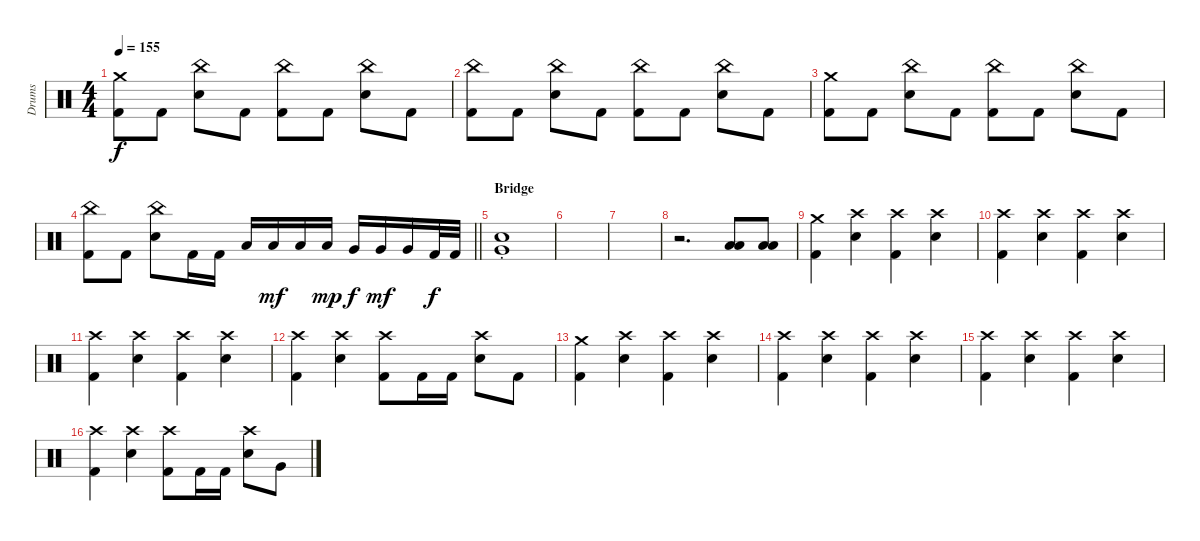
\track ("Drums" "Drums") {instrument percussion}
\staff {score}
\articulation defaults
\ts (4 4)
\tempo 155
\clef neutral
\ks c
("Kick (hit) 2" "Crash medium (hit)").8{dy f} "Kick (hit) 2".8 ("China (hit)" "Electric Snare (hit)").8 "Kick (hit) 2".8 ("Kick (hit) 2" "China (hit)").8 "Kick (hit) 2".8 ("China (hit)" "Electric Snare (hit)").8 "Kick (hit) 2".8 |
("Kick (hit) 2" "China (hit)").8 "Kick (hit) 2".8 ("China (hit)" "Electric Snare (hit)").8 "Kick (hit) 2".8 ("Kick (hit) 2" "China (hit)").8 "Kick (hit) 2".8 ("China (hit)" "Electric Snare (hit)").8 "Kick (hit) 2".8 |
("Kick (hit) 2" "Crash medium (hit)").8 "Kick (hit) 2".8 ("China (hit)" "Electric Snare (hit)").8 "Kick (hit) 2".8 ("Kick (hit) 2" "China (hit)").8 "Kick (hit) 2".8 ("China (hit)" "Electric Snare (hit)").8 "Kick (hit) 2".8 |
\barLineRight lightlight
("Kick (hit) 2" "China (hit)").8 "Kick (hit) 2".8 ("China (hit)" "Electric Snare (hit)").8 "Kick (hit) 2".16 "Kick (hit) 2".16 "Low Tom (hit)".16 "Low Tom (hit)".16{dy mf} "Low Tom (hit)".16 "Low Tom (hit)".16{dy mp} "Very Low Tom (hit)".16{dy f} "Very Low Tom (hit)".16{dy mf} "Very Low Tom (hit)".16 "Kick (hit) 2".32{dy f} "Kick (hit) 2".32 |
\section ("" "Bridge")
("Very Low Tom (hit)"{st} "Electric Snare (hit)").1 |
|
|
r.2{d} ("Low Floor Tom (hit)" "Low Tom (hit)").8 ("Low Floor Tom (hit)" "Low Tom (hit)").8 |
("Kick (hit) 2" "Crash medium (hit)").4 ("Crash high (hit)" "Electric Snare (hit)").4 ("Kick (hit) 2" "Crash high (hit)").4 ("Crash high (hit)" "Electric Snare (hit)").4 |
("Kick (hit) 2" "Crash high (hit)").4 ("Crash high (hit)" "Electric Snare (hit)").4 ("Kick (hit) 2" "Crash high (hit)").4 ("Crash high (hit)" "Electric Snare (hit)").4 |
("Kick (hit) 2" "Crash high (hit)").4 ("Crash high (hit)" "Electric Snare (hit)").4 ("Kick (hit) 2" "Crash high (hit)").4 ("Crash high (hit)" "Electric Snare (hit)").4 |
("Kick (hit) 2" "Crash high (hit)").4 ("Crash high (hit)" "Electric Snare (hit)").4 ("Kick (hit) 2" "Crash high (hit)").8 "Kick (hit) 2".16 "Kick (hit) 2".16 ("Crash high (hit)" "Electric Snare (hit)").8 "Kick (hit) 2".8 |
("Kick (hit) 2" "Crash medium (hit)").4 ("Crash high (hit)" "Electric Snare (hit)").4 ("Kick (hit) 2" "Crash high (hit)").4 ("Crash high (hit)" "Electric Snare (hit)").4 |
("Kick (hit) 2" "Crash high (hit)").4 ("Crash high (hit)" "Electric Snare (hit)").4 ("Kick (hit) 2" "Crash high (hit)").4 ("Crash high (hit)" "Electric Snare (hit)").4 |
("Kick (hit) 2" "Crash high (hit)").4 ("Crash high (hit)" "Electric Snare (hit)").4 ("Kick (hit) 2" "Crash high (hit)").4 ("Crash high (hit)" "Electric Snare (hit)").4 |
("Kick (hit) 2" "Crash high (hit)").4 ("Crash high (hit)" "Electric Snare (hit)").4 ("Kick (hit) 2" "Crash high (hit)").8 "Kick (hit) 2".16 "Kick (hit) 2".16 ("Crash high (hit)" "Electric Snare (hit)").8 "Very Low Tom (hit)".8
